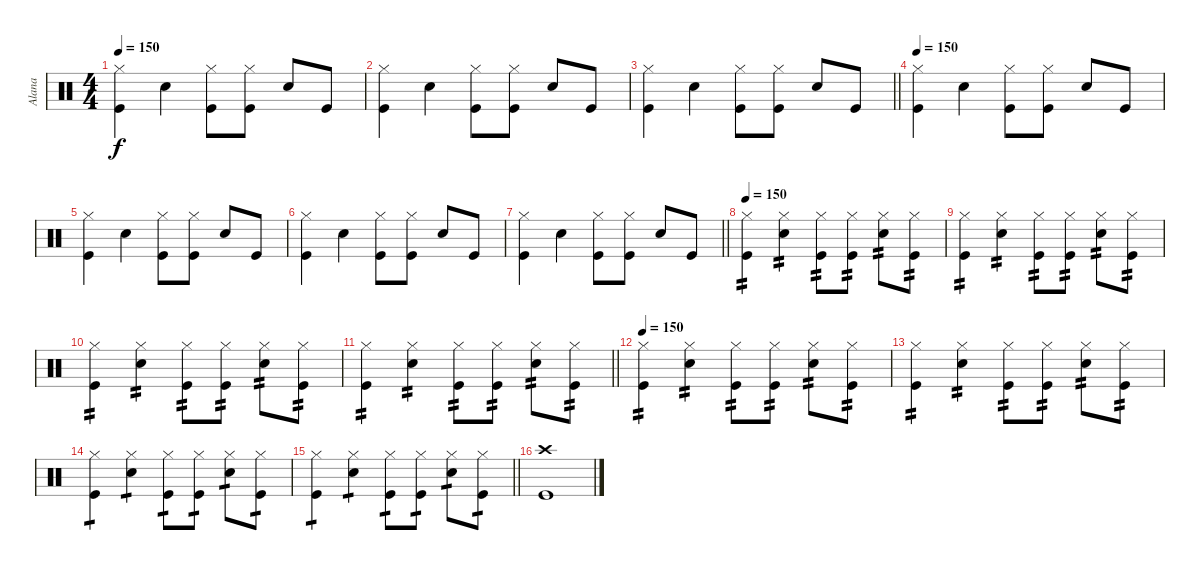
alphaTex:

\track ("Alana" "Alana") {instrument percussion}
\staff {score}
\articulation defaults
\ts (4 4)
\tempo 150
\clef neutral
\ks c
("Hi-Hat (closed)" "Kick (hit)").4{dy f} "Electric Snare (hit)".4 ("Hi-Hat (closed)" "Kick (hit)").8 ("Hi-Hat (closed)" "Kick (hit)").8 "Electric Snare (hit)".8 "Kick (hit)".8 |
("Hi-Hat (closed)" "Kick (hit)").4 "Electric Snare (hit)".4 ("Hi-Hat (closed)" "Kick (hit)").8 ("Hi-Hat (closed)" "Kick (hit)").8 "Electric Snare (hit)".8 "Kick (hit)".8 |
\barLineRight lightlight
("Hi-Hat (closed)" "Kick (hit)").4 "Electric Snare (hit)".4 ("Hi-Hat (closed)" "Kick (hit)").8 ("Hi-Hat (closed)" "Kick (hit)").8 "Electric Snare (hit)".8 "Kick (hit)".8 |
\tempo 150
("Hi-Hat (closed)" "Kick (hit)").4 "Electric Snare (hit)".4 ("Hi-Hat (closed)" "Kick (hit)").8 ("Hi-Hat (closed)" "Kick (hit)").8 "Electric Snare (hit)".8 "Kick (hit)".8 |
("Hi-Hat (closed)" "Kick (hit)").4 "Electric Snare (hit)".4 ("Hi-Hat (closed)" "Kick (hit)").8 ("Hi-Hat (closed)" "Kick (hit)").8 "Electric Snare (hit)".8 "Kick (hit)".8 |
("Hi-Hat (closed)" "Kick (hit)").4 "Electric Snare (hit)".4 ("Hi-Hat (closed)" "Kick (hit)").8 ("Hi-Hat (closed)" "Kick (hit)").8 "Electric Snare (hit)".8 "Kick (hit)".8 |
\barLineRight lightlight
("Hi-Hat (closed)" "Kick (hit)").4 "Electric Snare (hit)".4 ("Hi-Hat (closed)" "Kick (hit)").8 ("Hi-Hat (closed)" "Kick (hit)").8 "Electric Snare (hit)".8 "Kick (hit)".8 |
\tempo 150
("Hi-Hat (closed)" "Kick (hit)").4{tp 2} ("Hi-Hat (closed)" "Electric Snare (hit)").4{tp 2} ("Hi-Hat (closed)" "Kick (hit)").8{tp 2} ("Hi-Hat (closed)" "Kick (hit)").8{tp 2} ("Hi-Hat (closed)" "Electric Snare (hit)").8{tp 2} ("Hi-Hat (closed)" "Kick (hit)").8{tp 2} |
("Hi-Hat (closed)" "Kick (hit)").4{tp 2} ("Hi-Hat (closed)" "Electric Snare (hit)").4{tp 2} ("Hi-Hat (closed)" "Kick (hit)").8{tp 2} ("Hi-Hat (closed)" "Kick (hit)").8{tp 2} ("Hi-Hat (closed)" "Electric Snare (hit)").8{tp 2} ("Hi-Hat (closed)" "Kick (hit)").8{tp 2} |
("Hi-Hat (closed)" "Kick (hit)").4{tp 2} ("Hi-Hat (closed)" "Electric Snare (hit)").4{tp 2} ("Hi-Hat (closed)" "Kick (hit)").8{tp 2} ("Hi-Hat (closed)" "Kick (hit)").8{tp 2} ("Hi-Hat (closed)" "Electric Snare (hit)").8{tp 2} ("Hi-Hat (closed)" "Kick (hit)").8{tp 2} |
\barLineRight lightlight
("Hi-Hat (closed)" "Kick (hit)").4{tp 2} ("Hi-Hat (closed)" "Electric Snare (hit)").4{tp 2} ("Hi-Hat (closed)" "Kick (hit)").8{tp 2} ("Hi-Hat (closed)" "Kick (hit)").8{tp 2} ("Hi-Hat (closed)" "Electric Snare (hit)").8{tp 2} ("Hi-Hat (closed)" "Kick (hit)").8{tp 2} |
\tempo 150
("Hi-Hat (closed)" "Kick (hit)").4{tp 2} ("Hi-Hat (closed)" "Electric Snare (hit)").4{tp 2} ("Hi-Hat (closed)" "Kick (hit)").8{tp 2} ("Hi-Hat (closed)" "Kick (hit)").8{tp 2} ("Hi-Hat (closed)" "Electric Snare (hit)").8{tp 2} ("Hi-Hat (closed)" "Kick (hit)").8{tp 2} |
("Hi-Hat (closed)" "Kick (hit)").4{tp 2} ("Hi-Hat (closed)" "Electric Snare (hit)").4{tp 2} ("Hi-Hat (closed)" "Kick (hit)").8{tp 2} ("Hi-Hat (closed)" "Kick (hit)").8{tp 2} ("Hi-Hat (closed)" "Electric Snare (hit)").8{tp 2} ("Hi-Hat (closed)" "Kick (hit)").8{tp 2} |
("Hi-Hat (closed)" "Kick (hit)").4{tp 1} ("Hi-Hat (closed)" "Electric Snare (hit)").4{tp 1} ("Hi-Hat (closed)" "Kick (hit)").8{tp 1} ("Hi-Hat (closed)" "Kick (hit)").8{tp 1} ("Hi-Hat (closed)" "Electric Snare (hit)").8{tp 1} ("Hi-Hat (closed)" "Kick (hit)").8{tp 1} |
\barLineRight lightlight
("Hi-Hat (closed)" "Kick (hit)").4{tp 1} ("Hi-Hat (closed)" "Electric Snare (hit)").4{tp 1} ("Hi-Hat (closed)" "Kick (hit)").8{tp 1} ("Hi-Hat (closed)" "Kick (hit)").8{tp 1} ("Hi-Hat (closed)" "Electric Snare (hit)").8{tp 1} ("Hi-Hat (closed)" "Kick (hit)").8{tp 1} |
("Crash high (hit)" "Kick (hit)").1
